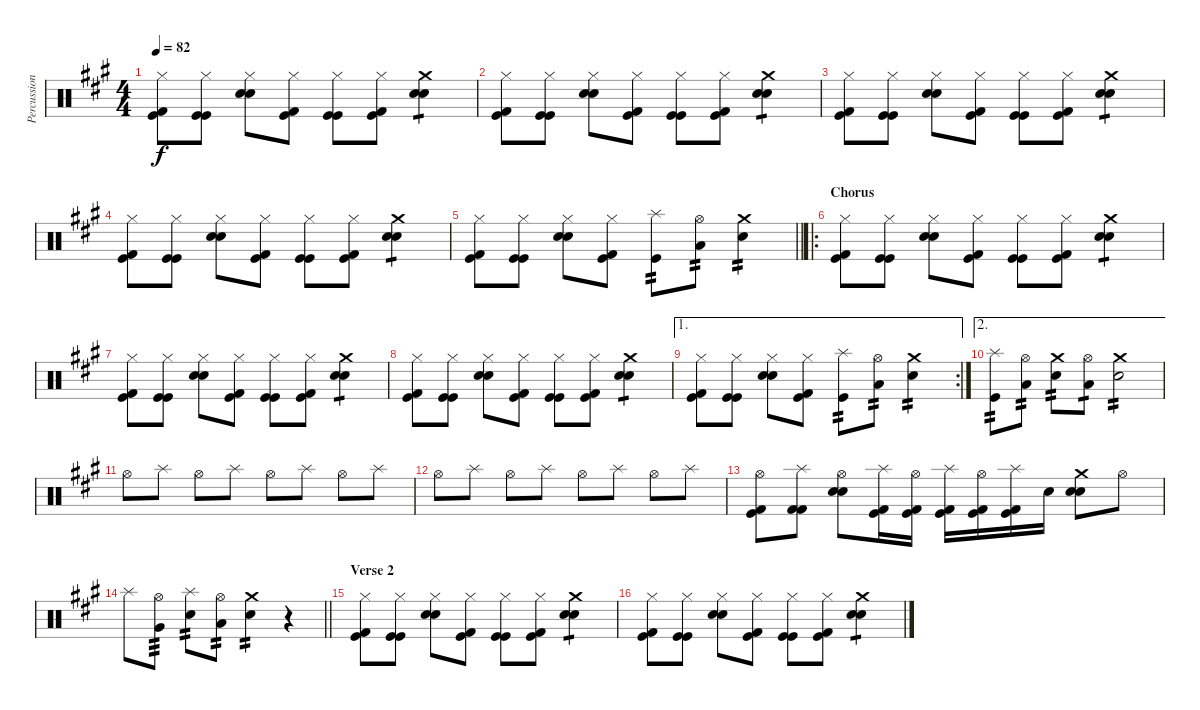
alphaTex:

\track ("Percussion" "Percussion") {instrument percussion}
\staff {score}
\articulation defaults
\ts (4 4)
\tempo 82
\clef neutral
\ks a
("Hi-Hat (closed)" "Kick (hit)" "Kick (hit) 2").8{dy f} ("Hi-Hat (closed)" "Kick (hit)" "Kick (hit)").8 ("Hi-Hat (closed)" "Electric Snare (hit)" "Snare (hit) 2").8 ("Hi-Hat (closed)" "Kick (hit)" "Kick (hit) 2").8 ("Hi-Hat (closed)" "Kick (hit)" "Kick (hit)").8 ("Hi-Hat (closed)" "Kick (hit)" "Kick (hit) 2").8 ("Crash medium (hit)" "Electric Snare (hit)" "Snare (hit) 2").4{tp 1} |
("Hi-Hat (closed)" "Kick (hit)" "Kick (hit) 2").8 ("Hi-Hat (closed)" "Kick (hit)" "Kick (hit)").8 ("Hi-Hat (closed)" "Electric Snare (hit)" "Snare (hit) 2").8 ("Hi-Hat (closed)" "Kick (hit)" "Kick (hit) 2").8 ("Hi-Hat (closed)" "Kick (hit)" "Kick (hit)").8 ("Hi-Hat (closed)" "Kick (hit)" "Kick (hit) 2").8 ("Crash medium (hit)" "Electric Snare (hit)" "Snare (hit) 2").4{tp 1} |
("Hi-Hat (closed)" "Kick (hit)" "Kick (hit) 2").8 ("Hi-Hat (closed)" "Kick (hit)" "Kick (hit)").8 ("Hi-Hat (closed)" "Electric Snare (hit)" "Snare (hit) 2").8 ("Hi-Hat (closed)" "Kick (hit)" "Kick (hit) 2").8 ("Hi-Hat (closed)" "Kick (hit)" "Kick (hit)").8 ("Hi-Hat (closed)" "Kick (hit)" "Kick (hit) 2").8 ("Crash medium (hit)" "Electric Snare (hit)" "Snare (hit) 2").4{tp 1} |
("Hi-Hat (closed)" "Kick (hit)" "Kick (hit) 2").8 ("Hi-Hat (closed)" "Kick (hit)" "Kick (hit)").8 ("Hi-Hat (closed)" "Electric Snare (hit)" "Snare (hit) 2").8 ("Hi-Hat (closed)" "Kick (hit)" "Kick (hit) 2").8 ("Hi-Hat (closed)" "Kick (hit)" "Kick (hit)").8 ("Hi-Hat (closed)" "Kick (hit)" "Kick (hit) 2").8 ("Crash medium (hit)" "Electric Snare (hit)" "Snare (hit) 2").4{tp 1} |
\barLineRight lightlight
("Hi-Hat (closed)" "Kick (hit)" "Kick (hit) 2").8 ("Hi-Hat (closed)" "Kick (hit)" "Kick (hit)").8 ("Hi-Hat (closed)" "Electric Snare (hit)" "Snare (hit) 2").8 ("Hi-Hat (closed)" "Kick (hit)" "Kick (hit) 2").8 ("Splash (hit)" "Kick (hit)").8{tp 2} ("Hi-Hat (open)" "Low Floor Tom (hit)").8{tp 2} ("Crash medium (hit)" "Electric Snare (hit)").4{tp 2} |
\ro
\section ("" "Chorus")
("Hi-Hat (closed)" "Kick (hit)" "Kick (hit) 2").8 ("Hi-Hat (closed)" "Kick (hit)" "Kick (hit)").8 ("Hi-Hat (closed)" "Electric Snare (hit)" "Snare (hit) 2").8 ("Hi-Hat (closed)" "Kick (hit)" "Kick (hit) 2").8 ("Hi-Hat (closed)" "Kick (hit)" "Kick (hit)").8 ("Hi-Hat (closed)" "Kick (hit)" "Kick (hit) 2").8 ("Crash medium (hit)" "Electric Snare (hit)" "Snare (hit) 2").4{tp 1} |
("Hi-Hat (closed)" "Kick (hit)" "Kick (hit) 2").8 ("Hi-Hat (closed)" "Kick (hit)" "Kick (hit)").8 ("Hi-Hat (closed)" "Electric Snare (hit)" "Snare (hit) 2").8 ("Hi-Hat (closed)" "Kick (hit)" "Kick (hit) 2").8 ("Hi-Hat (closed)" "Kick (hit)" "Kick (hit)").8 ("Hi-Hat (closed)" "Kick (hit)" "Kick (hit) 2").8 ("Crash medium (hit)" "Electric Snare (hit)" "Snare (hit) 2").4{tp 1} |
("Hi-Hat (closed)" "Kick (hit)" "Kick (hit) 2").8 ("Hi-Hat (closed)" "Kick (hit)" "Kick (hit)").8 ("Hi-Hat (closed)" "Electric Snare (hit)" "Snare (hit) 2").8 ("Hi-Hat (closed)" "Kick (hit)" "Kick (hit) 2").8 ("Hi-Hat (closed)" "Kick (hit)" "Kick (hit)").8 ("Hi-Hat (closed)" "Kick (hit)" "Kick (hit) 2").8 ("Crash medium (hit)" "Electric Snare (hit)" "Snare (hit) 2").4{tp 1} |
\ae 1
\rc 2
("Hi-Hat (closed)" "Kick (hit)" "Kick (hit) 2").8 ("Hi-Hat (closed)" "Kick (hit)" "Kick (hit)").8 ("Hi-Hat (closed)" "Electric Snare (hit)" "Snare (hit) 2").8 ("Hi-Hat (closed)" "Kick (hit)" "Kick (hit) 2").8 ("Splash (hit)" "Kick (hit)").8{tp 2} ("Hi-Hat (open)" "Low Floor Tom (hit)").8{tp 2} ("Crash medium (hit)" "Electric Snare (hit)").4{tp 2} |
\ae 2
("Splash (hit)" "Kick (hit)").8{tp 2} ("Hi-Hat (open)" "Low Floor Tom (hit)").8{tp 2} ("Crash medium (hit)" "Electric Snare (hit)").8{tp 2} ("Hi-Hat (open)" "Low Floor Tom (hit)").8{tp 1} ("Crash medium (hit)" "Electric Snare (hit)").2{tp 2} |
"Hi-Hat (open)".8 "Splash (hit)".8 "Hi-Hat (open)".8 "Splash (hit)".8 "Hi-Hat (open)".8 "Splash (hit)".8 "Hi-Hat (open)".8 "Splash (hit)".8 |
"Hi-Hat (open)".8 "Splash (hit)".8 "Hi-Hat (open)".8 "Splash (hit)".8 "Hi-Hat (open)".8 "Splash (hit)".8 "Hi-Hat (open)".8 "Splash (hit)".8 |
("Hi-Hat (open)" "Kick (hit) 2" "Kick (hit)").8 ("Splash (hit)" "Kick (hit) 2" "Kick (hit) 2").8 ("Hi-Hat (open)" "Electric Snare (hit)" "Snare (hit) 2").8 ("Splash (hit)" "Kick (hit) 2" "Kick (hit)").16 ("Hi-Hat (open)" "Kick (hit) 2" "Kick (hit)").16 ("Splash (hit)" "Kick (hit) 2" "Kick (hit)").16 ("Hi-Hat (open)" "Kick (hit) 2" "Kick (hit)").16 ("Splash (hit)" "Kick (hit) 2" "Kick (hit)").16 "Snare (hit)".16 ("Crash medium (hit)" "Electric Snare (hit)" "Snare (hit) 2").8 "Hi-Hat (open)".8 |
\barLineRight lightlight "Splash (hit)".8
("Hi-Hat (open)" "Very Low Tom (hit)").8{tp 3} ("Splash (hit)" "Electric Snare (hit)").8{tp 2} ("Hi-Hat (open)" "Low Floor Tom (hit)").8{tp 2} ("Crash medium (hit)" "Electric Snare (hit)").4{tp 2} r.4 |
\section ("" "Verse 2")
("Hi-Hat (closed)" "Kick (hit)" "Kick (hit) 2").8 ("Hi-Hat (closed)" "Kick (hit)" "Kick (hit)").8 ("Hi-Hat (closed)" "Electric Snare (hit)" "Snare (hit) 2").8 ("Hi-Hat (closed)" "Kick (hit)" "Kick (hit) 2").8 ("Hi-Hat (closed)" "Kick (hit)" "Kick (hit)").8 ("Hi-Hat (closed)" "Kick (hit)" "Kick (hit) 2").8 ("Crash medium (hit)" "Electric Snare (hit)" "Snare (hit) 2").4{tp 1} |
("Hi-Hat (closed)" "Kick (hit)" "Kick (hit) 2").8 ("Hi-Hat (closed)" "Kick (hit)" "Kick (hit)").8 ("Hi-Hat (closed)" "Electric Snare (hit)" "Snare (hit) 2").8 ("Hi-Hat (closed)" "Kick (hit)" "Kick (hit) 2").8 ("Hi-Hat (closed)" "Kick (hit)" "Kick (hit)").8 ("Hi-Hat (closed)" "Kick (hit)" "Kick (hit) 2").8 ("Crash medium (hit)" "Electric Snare (hit)" "Snare (hit) 2").4{tp 1}
